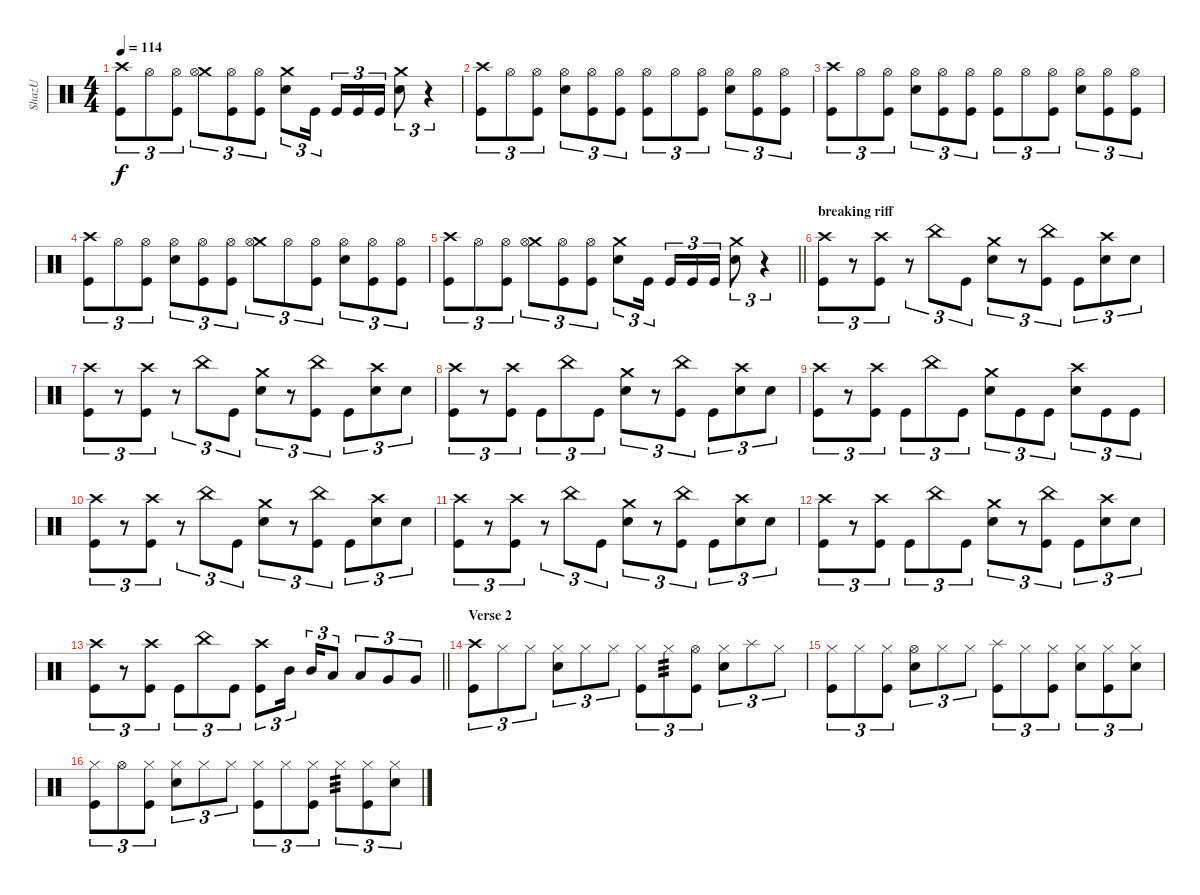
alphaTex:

\track ("ShazU" "ShazU") {instrument percussion}
\staff {score}
\articulation defaults
\ts (4 4)
\tempo 114
\clef neutral
\ks c
("Kick (hit)" "Crash high (hit)").8{tu (3 2) dy f} "Hi-Hat (open)".8{tu (3 2)} ("Kick (hit)" "Hi-Hat (open)").8{tu (3 2)} ("Crash medium (hit)" "Hi-Hat (open)").8{tu (3 2)} ("Kick (hit)" "Hi-Hat (open)").8{tu (3 2)} ("Kick (hit)" "Hi-Hat (open)").8{tu (3 2)} ("Snare (hit) 2" "Crash medium (hit)").8{tu (3 2)} "Kick (hit)".16{tu (3 2) beam splitsecondary} "Kick (hit)".16{tu (3 2)} "Kick (hit)".16{tu (3 2)} "Kick (hit)".16{tu (3 2)} ("Snare (hit) 2" "Crash medium (hit)").8{tu (3 2)} r.4{tu (3 2)} |
("Kick (hit)" "Crash high (hit)").8{tu (3 2)} "Hi-Hat (open)".8{tu (3 2)} ("Kick (hit)" "Hi-Hat (open)").8{tu (3 2)} ("Snare (hit) 2" "Hi-Hat (open)").8{tu (3 2)} ("Kick (hit)" "Hi-Hat (open)").8{tu (3 2)} ("Kick (hit)" "Hi-Hat (open)").8{tu (3 2)} ("Kick (hit)" "Hi-Hat (open)").8{tu (3 2)} "Hi-Hat (open)".8{tu (3 2)} ("Kick (hit)" "Hi-Hat (open)").8{tu (3 2)} ("Snare (hit) 2" "Hi-Hat (open)").8{tu (3 2)} ("Kick (hit)" "Hi-Hat (open)").8{tu (3 2)} ("Kick (hit)" "Hi-Hat (open)").8{tu (3 2)} |
("Kick (hit)" "Crash high (hit)").8{tu (3 2)} "Hi-Hat (open)".8{tu (3 2)} ("Kick (hit)" "Hi-Hat (open)").8{tu (3 2)} ("Snare (hit) 2" "Hi-Hat (open)").8{tu (3 2)} ("Kick (hit)" "Hi-Hat (open)").8{tu (3 2)} ("Kick (hit)" "Hi-Hat (open)").8{tu (3 2)} ("Kick (hit)" "Hi-Hat (open)").8{tu (3 2)} "Hi-Hat (open)".8{tu (3 2)} ("Kick (hit)" "Hi-Hat (open)").8{tu (3 2)} ("Snare (hit) 2" "Hi-Hat (open)").8{tu (3 2)} ("Kick (hit)" "Hi-Hat (open)").8{tu (3 2)} ("Kick (hit)" "Hi-Hat (open)").8{tu (3 2)} |
("Kick (hit)" "Crash high (hit)").8{tu (3 2)} "Hi-Hat (open)".8{tu (3 2)} ("Kick (hit)" "Hi-Hat (open)").8{tu (3 2)} ("Snare (hit) 2" "Hi-Hat (open)").8{tu (3 2)} ("Kick (hit)" "Hi-Hat (open)").8{tu (3 2)} ("Kick (hit)" "Hi-Hat (open)").8{tu (3 2)} ("Crash medium (hit)" "Hi-Hat (open)").8{tu (3 2)} "Hi-Hat (open)".8{tu (3 2)} ("Kick (hit)" "Hi-Hat (open)").8{tu (3 2)} ("Snare (hit) 2" "Hi-Hat (open)").8{tu (3 2)} ("Kick (hit)" "Hi-Hat (open)").8{tu (3 2)} ("Kick (hit)" "Hi-Hat (open)").8{tu (3 2)} |
\barLineRight lightlight
("Kick (hit)" "Crash high (hit)").8{tu (3 2)} "Hi-Hat (open)".8{tu (3 2)} ("Kick (hit)" "Hi-Hat (open)").8{tu (3 2)} ("Crash medium (hit)" "Hi-Hat (open)").8{tu (3 2)} ("Kick (hit)" "Hi-Hat (open)").8{tu (3 2)} ("Kick (hit)" "Hi-Hat (open)").8{tu (3 2)} ("Snare (hit) 2" "Crash medium (hit)").8{tu (3 2)} "Kick (hit)".16{tu (3 2) beam splitsecondary} "Kick (hit)".16{tu (3 2)} "Kick (hit)".16{tu (3 2)} "Kick (hit)".16{tu (3 2)} ("Snare (hit) 2" "Crash medium (hit)").8{tu (3 2)} r.4{tu (3 2)} |
\section ("" "breaking riff")
("Kick (hit)" "Crash high (hit)").8{tu (3 2)} r.8{tu (3 2)} ("Kick (hit)" "Crash high (hit)").8{tu (3 2)} r.8{tu (3 2)} "China (hit)".8{tu (3 2)} "Kick (hit)".8{tu (3 2)} ("Snare (hit) 2" "Crash medium (hit)").8{tu (3 2)} r.8{tu (3 2)} ("Kick (hit)" "China (hit)").8{tu (3 2)} "Kick (hit)".8{tu (3 2)} ("Snare (hit) 2" "Crash high (hit)").8{tu (3 2)} "Snare (hit) 2".8{tu (3 2)} |
("Kick (hit)" "Crash high (hit)").8{tu (3 2)} r.8{tu (3 2)} ("Kick (hit)" "Crash high (hit)").8{tu (3 2)} r.8{tu (3 2)} "China (hit)".8{tu (3 2)} "Kick (hit)".8{tu (3 2)} ("Snare (hit) 2" "Crash medium (hit)").8{tu (3 2)} r.8{tu (3 2)} ("Kick (hit)" "China (hit)").8{tu (3 2)} "Kick (hit)".8{tu (3 2)} ("Snare (hit) 2" "Crash high (hit)").8{tu (3 2)} "Snare (hit) 2".8{tu (3 2)} |
("Kick (hit)" "Crash high (hit)").8{tu (3 2)} r.8{tu (3 2)} ("Kick (hit)" "Crash high (hit)").8{tu (3 2)} "Kick (hit)".8{tu (3 2)} "China (hit)".8{tu (3 2)} "Kick (hit)".8{tu (3 2)} ("Snare (hit) 2" "Crash medium (hit)").8{tu (3 2)} r.8{tu (3 2)} ("Kick (hit)" "China (hit)").8{tu (3 2)} "Kick (hit)".8{tu (3 2)} ("Snare (hit) 2" "Crash high (hit)").8{tu (3 2)} "Snare (hit) 2".8{tu (3 2)} |
("Kick (hit)" "Crash high (hit)").8{tu (3 2)} r.8{tu (3 2)} ("Kick (hit)" "Crash high (hit)").8{tu (3 2)} "Kick (hit)".8{tu (3 2)} "China (hit)".8{tu (3 2)} "Kick (hit)".8{tu (3 2)} ("Snare (hit) 2" "Crash medium (hit)").8{tu (3 2)} "Kick (hit)".8{tu (3 2)} "Kick (hit)".8{tu (3 2)} ("Snare (hit) 2" "Crash high (hit)").8{tu (3 2)} "Kick (hit)".8{tu (3 2)} "Kick (hit)".8{tu (3 2)} |
("Kick (hit)" "Crash high (hit)").8{tu (3 2)} r.8{tu (3 2)} ("Kick (hit)" "Crash high (hit)").8{tu (3 2)} r.8{tu (3 2)} "China (hit)".8{tu (3 2)} "Kick (hit)".8{tu (3 2)} ("Snare (hit) 2" "Crash medium (hit)").8{tu (3 2)} r.8{tu (3 2)} ("Kick (hit)" "China (hit)").8{tu (3 2)} "Kick (hit)".8{tu (3 2)} ("Snare (hit) 2" "Crash high (hit)").8{tu (3 2)} "Snare (hit) 2".8{tu (3 2)} |
("Kick (hit)" "Crash high (hit)").8{tu (3 2)} r.8{tu (3 2)} ("Kick (hit)" "Crash high (hit)").8{tu (3 2)} r.8{tu (3 2)} "China (hit)".8{tu (3 2)} "Kick (hit)".8{tu (3 2)} ("Snare (hit) 2" "Crash medium (hit)").8{tu (3 2)} r.8{tu (3 2)} ("Kick (hit)" "China (hit)").8{tu (3 2)} "Kick (hit)".8{tu (3 2)} ("Snare (hit) 2" "Crash high (hit)").8{tu (3 2)} "Snare (hit) 2".8{tu (3 2)} |
("Kick (hit)" "Crash high (hit)").8{tu (3 2)} r.8{tu (3 2)} ("Kick (hit)" "Crash high (hit)").8{tu (3 2)} "Kick (hit)".8{tu (3 2)} "China (hit)".8{tu (3 2)} "Kick (hit)".8{tu (3 2)} ("Snare (hit) 2" "Crash medium (hit)").8{tu (3 2)} r.8{tu (3 2)} ("Kick (hit)" "China (hit)").8{tu (3 2)} "Kick (hit)".8{tu (3 2)} ("Snare (hit) 2" "Crash high (hit)").8{tu (3 2)} "Snare (hit) 2".8{tu (3 2)} |
\barLineRight lightlight
("Kick (hit)" "Crash high (hit)").8{tu (3 2)} r.8{tu (3 2)} ("Kick (hit)" "Crash high (hit)").8{tu (3 2)} "Kick (hit)".8{tu (3 2)} "China (hit)".8{tu (3 2)} "Kick (hit)".8{tu (3 2)} ("Kick (hit)" "Crash high (hit)").8{tu (3 2)} "Mid Tom (hit)".16{tu (3 2) beam splitsecondary} "Mid Tom (hit)".16{tu (3 2)} "Low Tom (hit)".8{tu (3 2)} "Low Tom (hit)".8{tu (3 2)} "Very Low Tom (hit)".8{tu (3 2)} "Very Low Tom (hit)".8{tu (3 2)} |
\section ("" "Verse 2")
("Kick (hit)" "Crash high (hit)").8{tu (3 2)} "Hi-Hat (closed)".8{tu (3 2)} "Hi-Hat (closed)".8{tu (3 2)} ("Snare (hit) 2" "Hi-Hat (closed)").8{tu (3 2)} "Hi-Hat (closed)".8{tu (3 2)} "Hi-Hat (closed)".8{tu (3 2)} ("Kick (hit)" "Hi-Hat (closed)").8{tu (3 2)} "Hi-Hat (closed)".8{tu (3 2) tp 3} ("Kick (hit)" "Hi-Hat (open)").8{tu (3 2)} ("Snare (hit) 2" "Hi-Hat (closed)").8{tu (3 2)} "Splash (hit)".8{tu (3 2)} "Hi-Hat (closed)".8{tu (3 2)} |
("Kick (hit)" "Hi-Hat (closed)").8{tu (3 2)} "Hi-Hat (closed)".8{tu (3 2)} ("Kick (hit)" "Hi-Hat (closed)").8{tu (3 2)} ("Snare (hit) 2" "Hi-Hat (open)").8{tu (3 2)} "Hi-Hat (closed)".8{tu (3 2)} "Hi-Hat (closed)".8{tu (3 2)} ("Kick (hit)" "Splash (hit)").8{tu (3 2)} "Hi-Hat (closed)".8{tu (3 2)} ("Kick (hit)" "Hi-Hat (closed)").8{tu (3 2)} ("Snare (hit) 2" "Hi-Hat (closed)").8{tu (3 2)} ("Kick (hit)" "Hi-Hat (closed)").8{tu (3 2)} ("Snare (hit) 2" "Hi-Hat (closed)").8{tu (3 2)} |
("Kick (hit)" "Hi-Hat (closed)").8{tu (3 2)} "Hi-Hat (open)".8{tu (3 2)} ("Kick (hit)" "Hi-Hat (closed)").8{tu (3 2)} ("Snare (hit) 2" "Hi-Hat (closed)").8{tu (3 2)} "Hi-Hat (closed)".8{tu (3 2)} "Hi-Hat (closed)".8{tu (3 2)} ("Kick (hit)" "Hi-Hat (closed)").8{tu (3 2)} "Hi-Hat (closed)".8{tu (3 2)} ("Kick (hit)" "Hi-Hat (closed)").8{tu (3 2)} "Hi-Hat (closed)".8{tu (3 2) tp 3} ("Kick (hit)" "Hi-Hat (closed)").8{tu (3 2)} ("Snare (hit) 2" "Hi-Hat (closed)").8{tu (3 2)}
